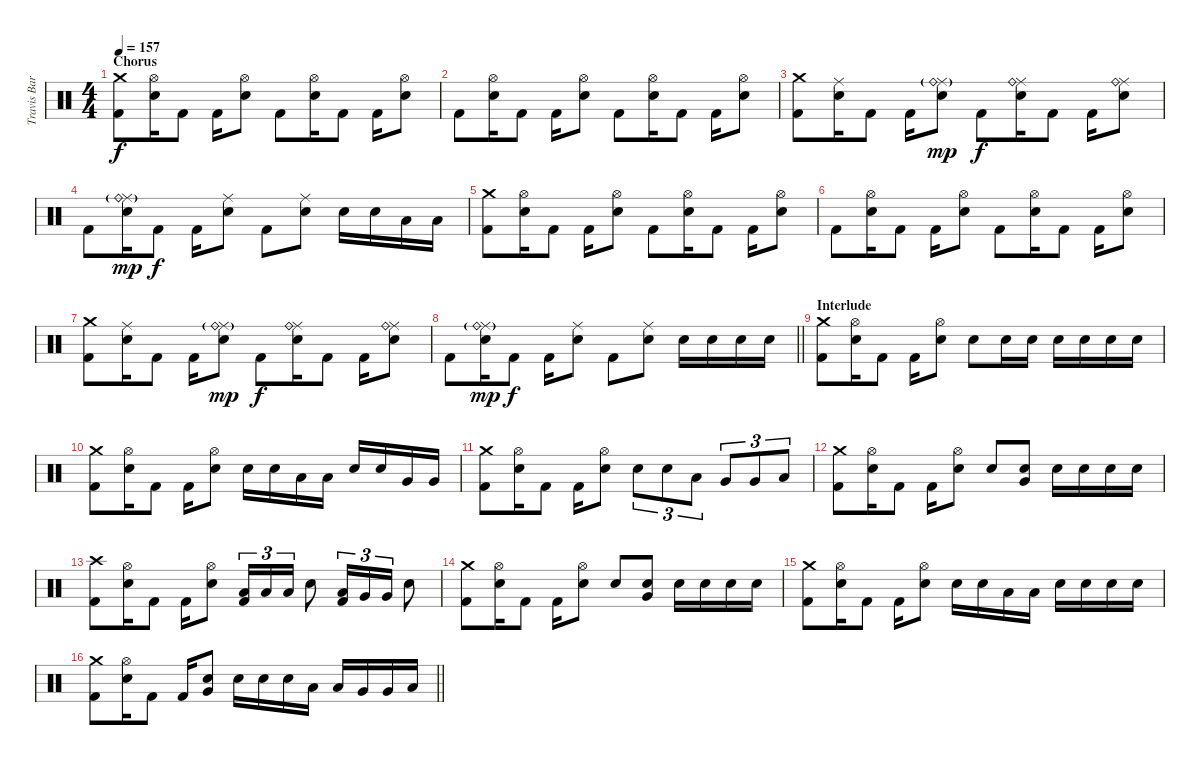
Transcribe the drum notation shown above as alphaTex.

\track ("Travis Barker - Drums" "Travis Bar") {instrument percussion}
\staff {score}
\articulation defaults
\ts (4 4)
\section ("" "Chorus")
\tempo 157
\clef neutral
\ks c
("Crash medium (hit)" "Kick (hit) 2").8{dy f} ("Hi-Hat (open)" "Electric Snare (hit)").16 "Kick (hit) 2".8 "Kick (hit) 2".16 ("Hi-Hat (open)" "Electric Snare (hit)").8 "Kick (hit) 2".8 ("Hi-Hat (open)" "Electric Snare (hit)").16 "Kick (hit) 2".8 "Kick (hit) 2".16 ("Hi-Hat (open)" "Electric Snare (hit)").8 |
"Kick (hit) 2".8 ("Hi-Hat (open)" "Electric Snare (hit)").16 "Kick (hit) 2".8 "Kick (hit) 2".16 ("Hi-Hat (open)" "Electric Snare (hit)").8 "Kick (hit) 2".8 ("Hi-Hat (open)" "Electric Snare (hit)").16 "Kick (hit) 2".8 "Kick (hit) 2".16 ("Hi-Hat (open)" "Electric Snare (hit)").8 |
("Crash medium (hit)" "Kick (hit) 2").8 ("Ride (middle)" "Electric Snare (hit)").16 "Kick (hit) 2".8 "Kick (hit) 2".16 ("Ride (middle)" "Ride (bell)"{g} "Electric Snare (hit)").8{dy mp} "Kick (hit) 2".8{dy f} ("Ride (middle)" "Ride (bell)" "Electric Snare (hit)").16 "Kick (hit) 2".8 "Kick (hit) 2".16 ("Ride (middle)" "Ride (bell)" "Electric Snare (hit)").8 |
"Kick (hit) 2".8 ("Ride (middle)" "Ride (bell)"{g} "Electric Snare (hit)").16{dy mp} "Kick (hit) 2".8{dy f} "Kick (hit) 2".16 ("Ride (middle)" "Electric Snare (hit)").8 "Kick (hit) 2".8 ("Ride (middle)" "Electric Snare (hit)").8 "Electric Snare (hit)".16 "Electric Snare (hit)".16 "Low Tom (hit)".16 "Low Tom (hit)".16 |
("Crash medium (hit)" "Kick (hit) 2").8 ("Hi-Hat (open)" "Electric Snare (hit)").16 "Kick (hit) 2".8 "Kick (hit) 2".16 ("Hi-Hat (open)" "Electric Snare (hit)").8 "Kick (hit) 2".8 ("Hi-Hat (open)" "Electric Snare (hit)").16 "Kick (hit) 2".8 "Kick (hit) 2".16 ("Hi-Hat (open)" "Electric Snare (hit)").8 |
"Kick (hit) 2".8 ("Hi-Hat (open)" "Electric Snare (hit)").16 "Kick (hit) 2".8 "Kick (hit) 2".16 ("Hi-Hat (open)" "Electric Snare (hit)").8 "Kick (hit) 2".8 ("Hi-Hat (open)" "Electric Snare (hit)").16 "Kick (hit) 2".8 "Kick (hit) 2".16 ("Hi-Hat (open)" "Electric Snare (hit)").8 |
("Crash medium (hit)" "Kick (hit) 2").8 ("Ride (middle)" "Electric Snare (hit)").16 "Kick (hit) 2".8 "Kick (hit) 2".16 ("Ride (middle)" "Ride (bell)"{g} "Electric Snare (hit)").8{dy mp} "Kick (hit) 2".8{dy f} ("Ride (middle)" "Ride (bell)" "Electric Snare (hit)").16 "Kick (hit) 2".8 "Kick (hit) 2".16 ("Ride (middle)" "Ride (bell)" "Electric Snare (hit)").8 |
\barLineRight lightlight "Kick (hit) 2".8
("Ride (middle)" "Ride (bell)"{g} "Electric Snare (hit)").16{dy mp} "Kick (hit) 2".8{dy f} "Kick (hit) 2".16 ("Ride (middle)" "Electric Snare (hit)").8 "Kick (hit) 2".8 ("Ride (middle)" "Electric Snare (hit)").8 "Electric Snare (hit)".16 "Electric Snare (hit)".16 "Electric Snare (hit)".16 "Electric Snare (hit)".16 |
\section ("" "Interlude")
("Crash medium (hit)" "Kick (hit) 2").8 ("Hi-Hat (open)" "Electric Snare (hit)").16 "Kick (hit) 2".8 "Kick (hit) 2".16 ("Hi-Hat (open)" "Electric Snare (hit)").8 "Electric Snare (hit)".8 "Electric Snare (hit)".16 "Electric Snare (hit)".16 "Electric Snare (hit)".16 "Electric Snare (hit)".16 "Electric Snare (hit)".16 "Electric Snare (hit)".16 |
("Crash medium (hit)" "Kick (hit) 2").8 ("Hi-Hat (open)" "Electric Snare (hit)").16 "Kick (hit) 2".8 "Kick (hit) 2".16 ("Hi-Hat (open)" "Electric Snare (hit)").8 "Electric Snare (hit)".16 "Electric Snare (hit)".16 "Low Tom (hit)".16 "Low Tom (hit)".16 "Electric Snare (hit)".16 "Electric Snare (hit)".16 "Very Low Tom (hit)".16 "Very Low Tom (hit)".16 |
("Crash medium (hit)" "Kick (hit) 2").8 ("Hi-Hat (open)" "Electric Snare (hit)").16 "Kick (hit) 2".8 "Kick (hit) 2".16 ("Hi-Hat (open)" "Electric Snare (hit)").8 "Electric Snare (hit)".8{tu (3 2)} "Electric Snare (hit)".8{tu (3 2)} "Low Tom (hit)".8{tu (3 2)} "Very Low Tom (hit)".8{tu (3 2)} "Very Low Tom (hit)".8{tu (3 2)} "Low Floor Tom (hit)".8{tu (3 2)} |
("Crash medium (hit)" "Kick (hit) 2").8 ("Hi-Hat (open)" "Electric Snare (hit)").16 "Kick (hit) 2".8 "Kick (hit) 2".16 ("Hi-Hat (open)" "Electric Snare (hit)").8 "Electric Snare (hit)".8 ("Very Low Tom (hit)" "Electric Snare (hit)").8 "Electric Snare (hit)".16 "Electric Snare (hit)".16 "Electric Snare (hit)".16 "Electric Snare (hit)".16 |
("Crash high (hit)" "Kick (hit) 2").8 ("Hi-Hat (open)" "Electric Snare (hit)").16 "Kick (hit) 2".8 "Kick (hit) 2".16 ("Hi-Hat (open)" "Electric Snare (hit)").8 ("Low Tom (hit)" "Kick (hit) 2").16{tu (3 2)} "Low Tom (hit)".16{tu (3 2)} "Low Tom (hit)".16{tu (3 2)} "Electric Snare (hit)".8 ("Low Tom (hit)" "Kick (hit) 2").16{tu (3 2)} "Very Low Tom (hit)".16{tu (3 2)} "Very Low Tom (hit)".16{tu (3 2)} "Electric Snare (hit)".8 |
("Crash medium (hit)" "Kick (hit) 2").8 ("Hi-Hat (open)" "Electric Snare (hit)").16 "Kick (hit) 2".8 "Kick (hit) 2".16 ("Hi-Hat (open)" "Electric Snare (hit)").8 "Electric Snare (hit)".8 ("Very Low Tom (hit)" "Electric Snare (hit)").8 "Electric Snare (hit)".16 "Electric Snare (hit)".16 "Electric Snare (hit)".16 "Electric Snare (hit)".16 |
("Crash medium (hit)" "Kick (hit) 2").8 ("Hi-Hat (open)" "Electric Snare (hit)").16 "Kick (hit) 2".8 "Kick (hit) 2".16 ("Hi-Hat (open)" "Electric Snare (hit)").8 "Electric Snare (hit)".16 "Electric Snare (hit)".16 "Low Tom (hit)".16 "Low Tom (hit)".16 "Electric Snare (hit)".16 "Electric Snare (hit)".16 "Electric Snare (hit)".16 "Electric Snare (hit)".16 |
\barLineRight lightlight
("Crash medium (hit)" "Kick (hit) 2").8 ("Hi-Hat (open)" "Electric Snare (hit)").16 "Kick (hit) 2".8 "Kick (hit) 2".16 ("Very Low Tom (hit)" "Electric Snare (hit)").8 "Electric Snare (hit)".16 "Electric Snare (hit)".16 "Electric Snare (hit)".16 "Low Tom (hit)".16 "Low Tom (hit)".16 "Very Low Tom (hit)".16 "Very Low Tom (hit)".16 "Low Floor Tom (hit)".16
